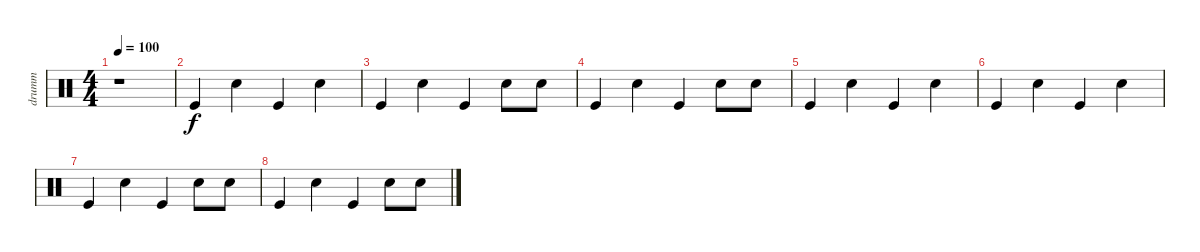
\track ("drumm" "drumm") {instrument percussion}
\staff {score}
\articulation defaults
\ts (4 4)
\tempo 100
\clef neutral
\ks c
r.1{dy f} |
"Kick (hit)".4 "Snare (hit) 2".4 "Kick (hit)".4 "Snare (hit) 2".4 |
"Kick (hit)".4 "Snare (hit) 2".4 "Kick (hit)".4 "Snare (hit) 2".8 "Snare (hit) 2".8 |
"Kick (hit)".4 "Snare (hit) 2".4 "Kick (hit)".4 "Snare (hit) 2".8 "Snare (hit) 2".8 |
"Kick (hit)".4 "Snare (hit) 2".4 "Kick (hit)".4 "Snare (hit) 2".4 |
"Kick (hit)".4 "Snare (hit) 2".4 "Kick (hit)".4 "Snare (hit) 2".4 |
"Kick (hit)".4 "Snare (hit) 2".4 "Kick (hit)".4 "Snare (hit) 2".8 "Snare (hit) 2".8 |
"Kick (hit)".4 "Snare (hit) 2".4 "Kick (hit)".4 "Snare (hit) 2".8 "Snare (hit) 2".8
